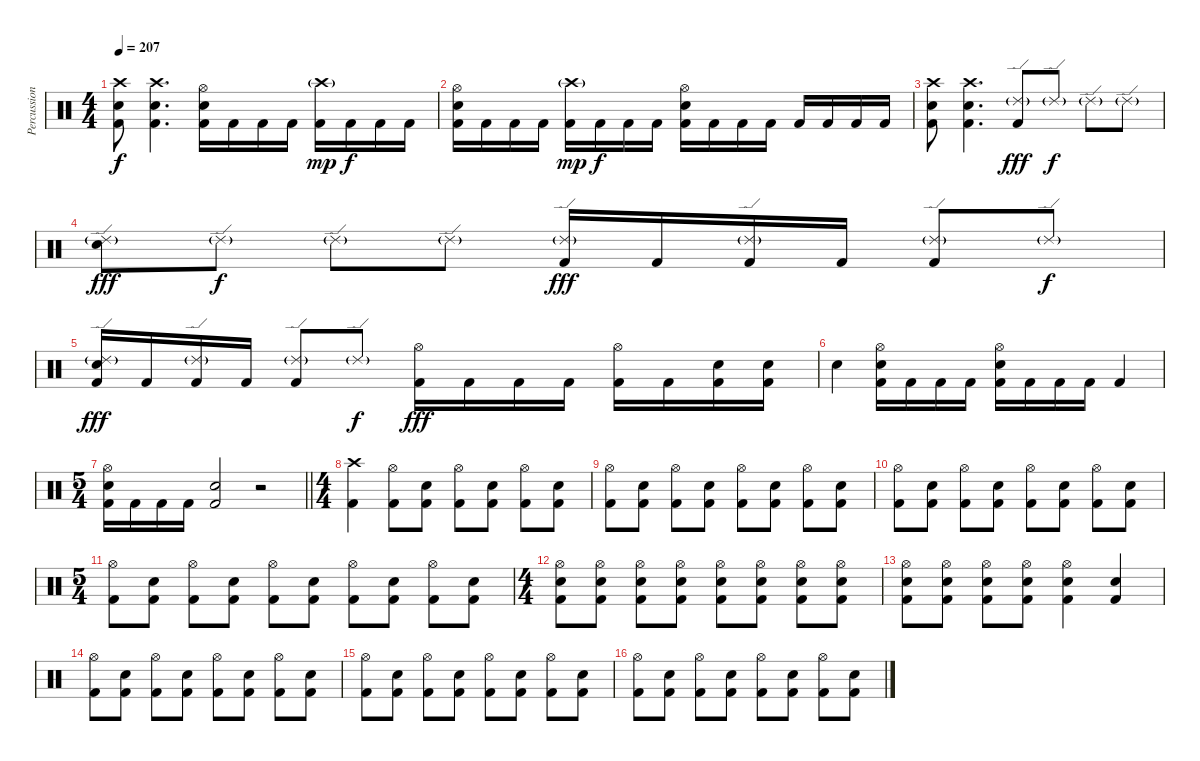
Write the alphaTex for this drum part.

\track ("Percussion" "Percussion") {instrument percussion}
\staff {score}
\articulation defaults
\ts (4 4)
\tempo 207
\clef neutral
\ks c
("Crash high (hit)" "Electric Snare (hit)" "Kick (hit) 2").8{dy f} ("Crash high (hit)" "Electric Snare (hit)" "Kick (hit) 2").4{d} ("Hi-Hat (open)" "Electric Snare (hit)" "Kick (hit) 2").16 "Kick (hit) 2".16 "Kick (hit) 2".16 "Kick (hit) 2".16 ("Crash high (hit)"{g} "Kick (hit) 2").16{dy mp} "Kick (hit) 2".16{dy f} "Kick (hit) 2".16 "Kick (hit) 2".16 |
("Hi-Hat (open)" "Electric Snare (hit)" "Kick (hit) 2").16 "Kick (hit) 2".16 "Kick (hit) 2".16 "Kick (hit) 2".16 ("Crash high (hit)"{g} "Kick (hit) 2").16{dy mp} "Kick (hit) 2".16{dy f} "Kick (hit) 2".16 "Kick (hit) 2".16 ("Hi-Hat (open)" "Electric Snare (hit)" "Kick (hit) 2").16 "Kick (hit) 2".16 "Kick (hit) 2".16 "Kick (hit) 2".16 "Kick (hit) 2".16 "Kick (hit) 2".16 "Kick (hit) 2".16 "Kick (hit) 2".16 |
("Crash high (hit)" "Electric Snare (hit)" "Kick (hit) 2").8 ("Crash high (hit)" "Electric Snare (hit)" "Kick (hit) 2").4{d} ("Ride (edge) 2"{g} "Kick (hit) 2").8{dy fff} "Ride (edge) 2"{g}.8{dy f} "Ride (edge) 2"{g}.8 "Ride (edge) 2"{g}.8 |
("Ride (edge) 2"{g} "Electric Snare (hit)").8{dy fff} "Ride (edge) 2"{g}.8{dy f} "Ride (edge) 2"{g}.8 "Ride (edge) 2"{g}.8 ("Ride (edge) 2"{g} "Kick (hit) 2").16{dy fff} "Kick (hit) 2".16 ("Ride (edge) 2"{g} "Kick (hit) 2").16 "Kick (hit) 2".16 ("Ride (edge) 2"{g} "Kick (hit) 2").8 "Ride (edge) 2"{g}.8{dy f} |
("Ride (edge) 2"{g} "Electric Snare (hit)" "Kick (hit) 2").16{dy fff} "Kick (hit) 2".16 ("Ride (edge) 2"{g} "Kick (hit) 2").16 "Kick (hit) 2".16 ("Ride (edge) 2"{g} "Kick (hit) 2").8 "Ride (edge) 2"{g}.8{dy f} ("Hi-Hat (open)" "Kick (hit) 2").16{dy fff} "Kick (hit) 2".16 "Kick (hit) 2".16 "Kick (hit) 2".16 ("Hi-Hat (open)" "Kick (hit) 2").16 "Kick (hit) 2".16 ("Electric Snare (hit)" "Kick (hit) 2").16 ("Electric Snare (hit)" "Kick (hit) 2").16 |
"Electric Snare (hit)".4 ("Hi-Hat (open)" "Electric Snare (hit)" "Kick (hit) 2").16 "Kick (hit) 2".16 "Kick (hit) 2".16 "Kick (hit) 2".16 ("Hi-Hat (open)" "Electric Snare (hit)" "Kick (hit) 2").16 "Kick (hit) 2".16 "Kick (hit) 2".16 "Kick (hit) 2".16 "Kick (hit) 2".4 |
\ts (5 4)
\barLineRight lightlight
("Hi-Hat (open)" "Electric Snare (hit)" "Kick (hit) 2").16 "Kick (hit) 2".16 "Kick (hit) 2".16 "Kick (hit) 2".16 ("Electric Snare (hit)" "Kick (hit) 2").2 r.2 |
\ts (4 4)
\section ("" "")
("Crash high (hit)" "Kick (hit) 2").4 ("Hi-Hat (open)" "Kick (hit) 2").8 ("Electric Snare (hit)" "Kick (hit) 2").8 ("Hi-Hat (open)" "Kick (hit) 2").8 ("Electric Snare (hit)" "Kick (hit) 2").8 ("Hi-Hat (open)" "Kick (hit) 2").8 ("Electric Snare (hit)" "Kick (hit) 2").8 |
("Hi-Hat (open)" "Kick (hit) 2").8 ("Electric Snare (hit)" "Kick (hit) 2").8 ("Hi-Hat (open)" "Kick (hit) 2").8 ("Electric Snare (hit)" "Kick (hit) 2").8 ("Hi-Hat (open)" "Kick (hit) 2").8 ("Electric Snare (hit)" "Kick (hit) 2").8 ("Hi-Hat (open)" "Kick (hit) 2").8 ("Electric Snare (hit)" "Kick (hit) 2").8 |
("Hi-Hat (open)" "Kick (hit) 2").8 ("Electric Snare (hit)" "Kick (hit) 2").8 ("Hi-Hat (open)" "Kick (hit) 2").8 ("Electric Snare (hit)" "Kick (hit) 2").8 ("Hi-Hat (open)" "Kick (hit) 2").8 ("Electric Snare (hit)" "Kick (hit) 2").8 ("Hi-Hat (open)" "Kick (hit) 2").8 ("Electric Snare (hit)" "Kick (hit) 2").8 |
\ts (5 4)
("Hi-Hat (open)" "Kick (hit) 2").8 ("Electric Snare (hit)" "Kick (hit) 2").8 ("Hi-Hat (open)" "Kick (hit) 2").8 ("Electric Snare (hit)" "Kick (hit) 2").8 ("Hi-Hat (open)" "Kick (hit) 2").8 ("Electric Snare (hit)" "Kick (hit) 2").8 ("Hi-Hat (open)" "Kick (hit) 2").8 ("Electric Snare (hit)" "Kick (hit) 2").8 ("Hi-Hat (open)" "Kick (hit) 2").8 ("Electric Snare (hit)" "Kick (hit) 2").8 |
\ts (4 4)
("Hi-Hat (open)" "Electric Snare (hit)" "Kick (hit) 2").8 ("Hi-Hat (open)" "Electric Snare (hit)" "Kick (hit) 2").8 ("Hi-Hat (open)" "Electric Snare (hit)" "Kick (hit) 2").8 ("Hi-Hat (open)" "Electric Snare (hit)" "Kick (hit) 2").8 ("Hi-Hat (open)" "Electric Snare (hit)" "Kick (hit) 2").8 ("Hi-Hat (open)" "Electric Snare (hit)" "Kick (hit) 2").8 ("Hi-Hat (open)" "Electric Snare (hit)" "Kick (hit) 2").8 ("Hi-Hat (open)" "Electric Snare (hit)" "Kick (hit) 2").8 |
("Hi-Hat (open)" "Electric Snare (hit)" "Kick (hit) 2").8 ("Hi-Hat (open)" "Electric Snare (hit)" "Kick (hit) 2").8 ("Hi-Hat (open)" "Electric Snare (hit)" "Kick (hit) 2").8 ("Hi-Hat (open)" "Electric Snare (hit)" "Kick (hit) 2").8 ("Hi-Hat (open)" "Electric Snare (hit)" "Kick (hit) 2").4 ("Electric Snare (hit)" "Kick (hit) 2").4 |
("Hi-Hat (open)" "Kick (hit) 2").8 ("Electric Snare (hit)" "Kick (hit) 2").8 ("Hi-Hat (open)" "Kick (hit) 2").8 ("Electric Snare (hit)" "Kick (hit) 2").8 ("Hi-Hat (open)" "Kick (hit) 2").8 ("Electric Snare (hit)" "Kick (hit) 2").8 ("Hi-Hat (open)" "Kick (hit) 2").8 ("Electric Snare (hit)" "Kick (hit) 2").8 |
("Hi-Hat (open)" "Kick (hit) 2").8 ("Electric Snare (hit)" "Kick (hit) 2").8 ("Hi-Hat (open)" "Kick (hit) 2").8 ("Electric Snare (hit)" "Kick (hit) 2").8 ("Hi-Hat (open)" "Kick (hit) 2").8 ("Electric Snare (hit)" "Kick (hit) 2").8 ("Hi-Hat (open)" "Kick (hit) 2").8 ("Electric Snare (hit)" "Kick (hit) 2").8 |
("Hi-Hat (open)" "Kick (hit) 2").8 ("Electric Snare (hit)" "Kick (hit) 2").8 ("Hi-Hat (open)" "Kick (hit) 2").8 ("Electric Snare (hit)" "Kick (hit) 2").8 ("Hi-Hat (open)" "Kick (hit) 2").8 ("Electric Snare (hit)" "Kick (hit) 2").8 ("Hi-Hat (open)" "Kick (hit) 2").8 ("Electric Snare (hit)" "Kick (hit) 2").8
